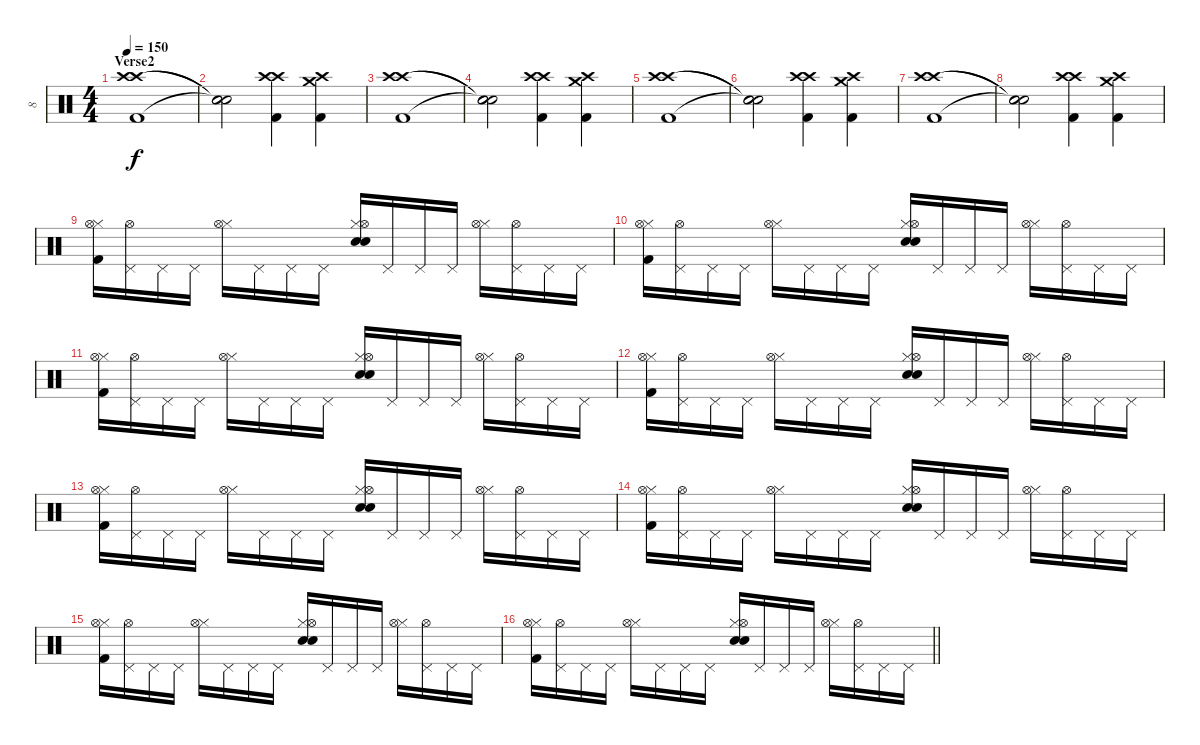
\track ("8" "8") {instrument percussion}
\staff {score}
\articulation defaults
\ts (4 4)
\section ("" "Verse2")
\tempo 150
\clef neutral
\ks c
("Crash high (hit)" "Crash high (hit)" "Kick (hit) 2").1{dy f} |
("Snare (hit)"{t} "Snare (hit)"{t} "Snare (hit)"{t}).2 ("Crash high (hit)" "Crash high (hit)" "Kick (hit) 2").4 ("Crash high (hit)" "Crash medium (hit)" "Kick (hit) 2").4 |
("Crash high (hit)" "Crash high (hit)" "Kick (hit) 2").1 |
("Snare (hit)"{t} "Snare (hit)"{t} "Snare (hit)"{t}).2 ("Crash high (hit)" "Crash high (hit)" "Kick (hit) 2").4 ("Crash high (hit)" "Crash medium (hit)" "Kick (hit) 2").4 |
("Crash high (hit)" "Crash high (hit)" "Kick (hit) 2").1 |
("Snare (hit)"{t} "Snare (hit)"{t} "Snare (hit)"{t}).2 ("Crash high (hit)" "Crash high (hit)" "Kick (hit) 2").4 ("Crash high (hit)" "Crash medium (hit)" "Kick (hit) 2").4 |
("Crash high (hit)" "Crash high (hit)" "Kick (hit) 2").1 |
("Snare (hit)"{t} "Snare (hit)"{t} "Snare (hit)"{t}).2 ("Crash high (hit)" "Crash high (hit)" "Kick (hit) 2").4 ("Crash high (hit)" "Crash medium (hit)" "Kick (hit) 2").4 |
("Hi-Hat (closed)" "Kick (hit) 2" "Hi-Hat (open)").16 ("Pedal Hi-Hat (hit)" "Hi-Hat (open)").16 "Pedal Hi-Hat (hit)".16 "Pedal Hi-Hat (hit)".16 ("Hi-Hat (closed)" "Hi-Hat (open)").16 "Pedal Hi-Hat (hit)".16 "Pedal Hi-Hat (hit)".16 "Pedal Hi-Hat (hit)".16 ("Snare (hit) 2" "Electric Snare (hit)" "Hi-Hat (closed)" "Hi-Hat (open)").16 "Pedal Hi-Hat (hit)".16 "Pedal Hi-Hat (hit)".16 "Pedal Hi-Hat (hit)".16 ("Hi-Hat (closed)" "Hi-Hat (open)").16 ("Pedal Hi-Hat (hit)" "Hi-Hat (open)").16 "Pedal Hi-Hat (hit)".16 "Pedal Hi-Hat (hit)".16 |
("Hi-Hat (closed)" "Kick (hit) 2" "Hi-Hat (open)").16 ("Pedal Hi-Hat (hit)" "Hi-Hat (open)").16 "Pedal Hi-Hat (hit)".16 "Pedal Hi-Hat (hit)".16 ("Hi-Hat (closed)" "Hi-Hat (open)").16 "Pedal Hi-Hat (hit)".16 "Pedal Hi-Hat (hit)".16 "Pedal Hi-Hat (hit)".16 ("Snare (hit) 2" "Electric Snare (hit)" "Hi-Hat (closed)" "Hi-Hat (open)").16 "Pedal Hi-Hat (hit)".16 "Pedal Hi-Hat (hit)".16 "Pedal Hi-Hat (hit)".16 ("Hi-Hat (closed)" "Hi-Hat (open)").16 ("Pedal Hi-Hat (hit)" "Hi-Hat (open)").16 "Pedal Hi-Hat (hit)".16 "Pedal Hi-Hat (hit)".16 |
("Hi-Hat (closed)" "Kick (hit) 2" "Hi-Hat (open)").16 ("Pedal Hi-Hat (hit)" "Hi-Hat (open)").16 "Pedal Hi-Hat (hit)".16 "Pedal Hi-Hat (hit)".16 ("Hi-Hat (closed)" "Hi-Hat (open)").16 "Pedal Hi-Hat (hit)".16 "Pedal Hi-Hat (hit)".16 "Pedal Hi-Hat (hit)".16 ("Snare (hit) 2" "Electric Snare (hit)" "Hi-Hat (closed)" "Hi-Hat (open)").16 "Pedal Hi-Hat (hit)".16 "Pedal Hi-Hat (hit)".16 "Pedal Hi-Hat (hit)".16 ("Hi-Hat (closed)" "Hi-Hat (open)").16 ("Pedal Hi-Hat (hit)" "Hi-Hat (open)").16 "Pedal Hi-Hat (hit)".16 "Pedal Hi-Hat (hit)".16 |
("Hi-Hat (closed)" "Kick (hit) 2" "Hi-Hat (open)").16 ("Pedal Hi-Hat (hit)" "Hi-Hat (open)").16 "Pedal Hi-Hat (hit)".16 "Pedal Hi-Hat (hit)".16 ("Hi-Hat (closed)" "Hi-Hat (open)").16 "Pedal Hi-Hat (hit)".16 "Pedal Hi-Hat (hit)".16 "Pedal Hi-Hat (hit)".16 ("Snare (hit) 2" "Electric Snare (hit)" "Hi-Hat (closed)" "Hi-Hat (open)").16 "Pedal Hi-Hat (hit)".16 "Pedal Hi-Hat (hit)".16 "Pedal Hi-Hat (hit)".16 ("Hi-Hat (closed)" "Hi-Hat (open)").16 ("Pedal Hi-Hat (hit)" "Hi-Hat (open)").16 "Pedal Hi-Hat (hit)".16 "Pedal Hi-Hat (hit)".16 |
("Hi-Hat (closed)" "Kick (hit) 2" "Hi-Hat (open)").16 ("Pedal Hi-Hat (hit)" "Hi-Hat (open)").16 "Pedal Hi-Hat (hit)".16 "Pedal Hi-Hat (hit)".16 ("Hi-Hat (closed)" "Hi-Hat (open)").16 "Pedal Hi-Hat (hit)".16 "Pedal Hi-Hat (hit)".16 "Pedal Hi-Hat (hit)".16 ("Snare (hit) 2" "Electric Snare (hit)" "Hi-Hat (closed)" "Hi-Hat (open)").16 "Pedal Hi-Hat (hit)".16 "Pedal Hi-Hat (hit)".16 "Pedal Hi-Hat (hit)".16 ("Hi-Hat (closed)" "Hi-Hat (open)").16 ("Pedal Hi-Hat (hit)" "Hi-Hat (open)").16 "Pedal Hi-Hat (hit)".16 "Pedal Hi-Hat (hit)".16 |
("Hi-Hat (closed)" "Kick (hit) 2" "Hi-Hat (open)").16 ("Pedal Hi-Hat (hit)" "Hi-Hat (open)").16 "Pedal Hi-Hat (hit)".16 "Pedal Hi-Hat (hit)".16 ("Hi-Hat (closed)" "Hi-Hat (open)").16 "Pedal Hi-Hat (hit)".16 "Pedal Hi-Hat (hit)".16 "Pedal Hi-Hat (hit)".16 ("Snare (hit) 2" "Electric Snare (hit)" "Hi-Hat (closed)" "Hi-Hat (open)").16 "Pedal Hi-Hat (hit)".16 "Pedal Hi-Hat (hit)".16 "Pedal Hi-Hat (hit)".16 ("Hi-Hat (closed)" "Hi-Hat (open)").16 ("Pedal Hi-Hat (hit)" "Hi-Hat (open)").16 "Pedal Hi-Hat (hit)".16 "Pedal Hi-Hat (hit)".16 |
("Hi-Hat (closed)" "Kick (hit) 2" "Hi-Hat (open)").16 ("Pedal Hi-Hat (hit)" "Hi-Hat (open)").16 "Pedal Hi-Hat (hit)".16 "Pedal Hi-Hat (hit)".16 ("Hi-Hat (closed)" "Hi-Hat (open)").16 "Pedal Hi-Hat (hit)".16 "Pedal Hi-Hat (hit)".16 "Pedal Hi-Hat (hit)".16 ("Snare (hit) 2" "Electric Snare (hit)" "Hi-Hat (closed)" "Hi-Hat (open)").16 "Pedal Hi-Hat (hit)".16 "Pedal Hi-Hat (hit)".16 "Pedal Hi-Hat (hit)".16 ("Hi-Hat (closed)" "Hi-Hat (open)").16 ("Pedal Hi-Hat (hit)" "Hi-Hat (open)").16 "Pedal Hi-Hat (hit)".16 "Pedal Hi-Hat (hit)".16 |
\barLineRight lightlight
("Hi-Hat (closed)" "Kick (hit) 2" "Hi-Hat (open)").16 ("Pedal Hi-Hat (hit)" "Hi-Hat (open)").16 "Pedal Hi-Hat (hit)".16 "Pedal Hi-Hat (hit)".16 ("Hi-Hat (closed)" "Hi-Hat (open)").16 "Pedal Hi-Hat (hit)".16 "Pedal Hi-Hat (hit)".16 "Pedal Hi-Hat (hit)".16 ("Snare (hit) 2" "Electric Snare (hit)" "Hi-Hat (closed)" "Hi-Hat (open)").16 "Pedal Hi-Hat (hit)".16 "Pedal Hi-Hat (hit)".16 "Pedal Hi-Hat (hit)".16 ("Hi-Hat (closed)" "Hi-Hat (open)").16 ("Pedal Hi-Hat (hit)" "Hi-Hat (open)").16 "Pedal Hi-Hat (hit)".16 "Pedal Hi-Hat (hit)".16
